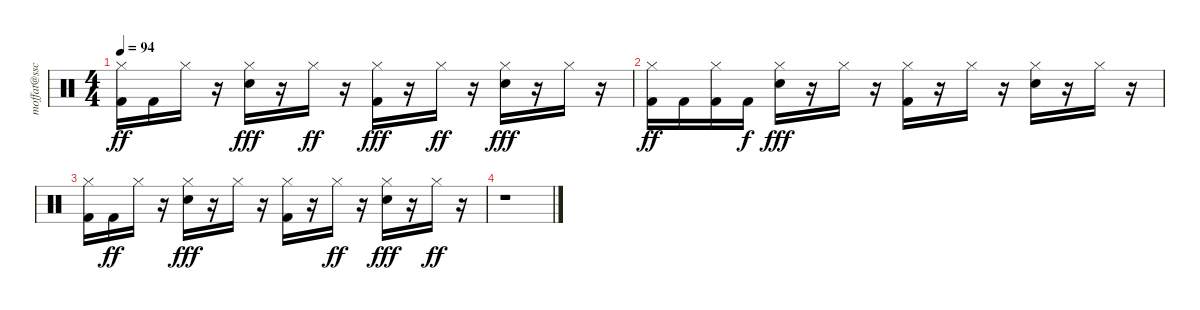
\track ("moffat@sscl." "moffat@ssc") {instrument percussion}
\staff {score}
\articulation defaults
\ts (4 4)
\tempo 94
\clef neutral
\ks c
("Kick (hit) 2" "Hi-Hat (closed)").16{dy ff volume 7} "Kick (hit) 2".16{volume 6} "Hi-Hat (closed)".16{volume 6} r.16 ("Hi-Hat (closed)" "Snare (hit) 2").16{dy fff volume 6} r.16 "Hi-Hat (closed)".16{dy ff volume 6} r.16 ("Kick (hit) 2" "Hi-Hat (closed)").16{dy fff volume 6} r.16 "Hi-Hat (closed)".16{dy ff volume 6} r.16 ("Snare (hit) 2" "Hi-Hat (closed)").16{dy fff volume 5} r.16 "Hi-Hat (closed)".16{volume 5} r.16 |
("Hi-Hat (closed)" "Kick (hit) 2").16{dy ff volume 5} "Kick (hit) 2".16{volume 4} ("Hi-Hat (closed)" "Kick (hit) 2").16{volume 4} "Kick (hit) 2".16{dy f volume 4} ("Hi-Hat (closed)" "Snare (hit) 2").16{dy fff volume 4} r.16 "Hi-Hat (closed)".16{volume 3} r.16 ("Hi-Hat (closed)" "Kick (hit) 2").16{volume 3} r.16 "Hi-Hat (closed)".16{volume 2} r.16 ("Snare (hit) 2" "Hi-Hat (closed)").16{volume 1} r.16 "Hi-Hat (closed)".16{volume 0} r.16 |
("Kick (hit) 2" "Hi-Hat (closed)").16{volume 0} "Kick (hit) 2".16{dy ff} "Hi-Hat (closed)".16 r.16 ("Snare (hit) 2" "Hi-Hat (closed)").16{dy fff} r.16 "Hi-Hat (closed)".16 r.16 ("Kick (hit) 2" "Hi-Hat (closed)").16 r.16 "Hi-Hat (closed)".16{dy ff} r.16 ("Snare (hit) 2" "Hi-Hat (closed)").16{dy fff} r.16 "Hi-Hat (closed)".16{dy ff} r.16 |
r.1
